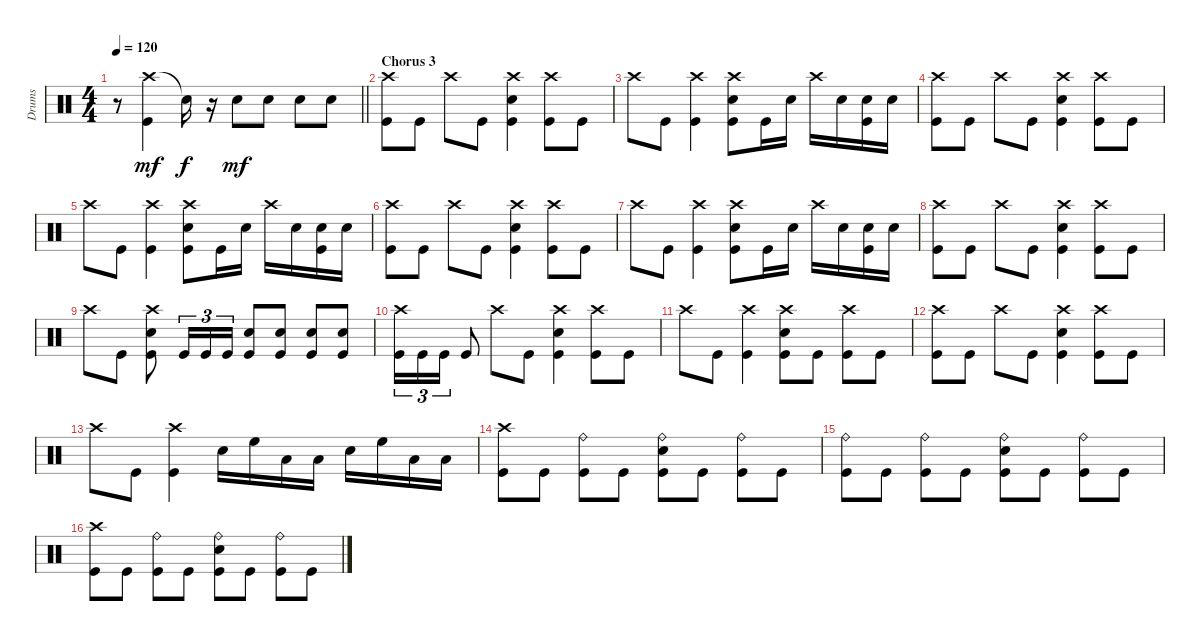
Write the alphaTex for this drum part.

\track ("Drums" "Drums") {instrument percussion}
\staff {score}
\articulation defaults
\ts (4 4)
\tempo 120
\clef neutral
\barLineRight lightlight
\ks c
r.8{dy mf} ("Crash high (hit)" "Kick (hit)").4 "Snare (hit)"{t}.16{dy f} r.16 "Snare (hit) 2".8{dy mf} "Snare (hit) 2".8 "Snare (hit) 2".8 "Snare (hit) 2".8 |
\section ("" "Chorus 3")
("Kick (hit)" "Crash high (hit)").8 "Kick (hit)".8 "Crash high (hit)".8 "Kick (hit)".8 ("Kick (hit)" "Snare (hit) 2" "Crash high (hit)").4 ("Kick (hit)" "Crash high (hit)").8 "Kick (hit)".8 |
"Crash high (hit)".8 "Kick (hit)".8 ("Kick (hit)" "Crash high (hit)").4 ("Kick (hit)" "Snare (hit) 2" "Crash high (hit)").8 "Kick (hit)".16 "Snare (hit) 2".16 "Crash high (hit)".16 "Snare (hit) 2".16 ("Snare (hit) 2" "Kick (hit)").16 "Snare (hit) 2".16 |
("Crash high (hit)" "Kick (hit)").8 "Kick (hit)".8 "Crash high (hit)".8 "Kick (hit)".8 ("Snare (hit) 2" "Crash high (hit)" "Kick (hit)").4 ("Crash high (hit)" "Kick (hit)").8 "Kick (hit)".8 |
"Crash high (hit)".8 "Kick (hit)".8 ("Kick (hit)" "Crash high (hit)").4 ("Kick (hit)" "Snare (hit) 2" "Crash high (hit)").8 "Kick (hit)".16 "Snare (hit) 2".16 "Crash high (hit)".16 "Snare (hit) 2".16 ("Kick (hit)" "Snare (hit) 2").16 "Snare (hit) 2".16 |
("Crash high (hit)" "Kick (hit)").8 "Kick (hit)".8 "Crash high (hit)".8 "Kick (hit)".8 ("Snare (hit) 2" "Crash high (hit)" "Kick (hit)").4 ("Crash high (hit)" "Kick (hit)").8 "Kick (hit)".8 |
"Crash high (hit)".8 "Kick (hit)".8 ("Crash high (hit)" "Kick (hit)").4 ("Snare (hit) 2" "Crash high (hit)" "Kick (hit)").8 "Kick (hit)".16 "Snare (hit) 2".16 "Crash high (hit)".16 "Snare (hit) 2".16 ("Kick (hit)" "Snare (hit) 2").16 "Snare (hit) 2".16 |
("Crash high (hit)" "Kick (hit)").8 "Kick (hit)".8 "Crash high (hit)".8 "Kick (hit)".8 ("Snare (hit) 2" "Crash high (hit)" "Kick (hit)").4 ("Crash high (hit)" "Kick (hit)").8 "Kick (hit)".8 |
"Crash high (hit)".8 "Kick (hit)".8 ("Snare (hit) 2" "Crash high (hit)" "Kick (hit)").8 "Kick (hit)".16{tu (3 2)} "Kick (hit)".16{tu (3 2)} "Kick (hit)".16{tu (3 2)} ("Kick (hit)" "Snare (hit) 2").8 ("Kick (hit)" "Snare (hit) 2").8 ("Kick (hit)" "Snare (hit) 2").8 ("Kick (hit)" "Snare (hit) 2").8 |
("Kick (hit)" "Crash high (hit)").16{tu (3 2)} "Kick (hit)".16{tu (3 2)} "Kick (hit)".16{tu (3 2)} "Kick (hit)".8 "Crash high (hit)".8 "Kick (hit)".8 ("Snare (hit) 2" "Crash high (hit)" "Kick (hit)").4 ("Crash high (hit)" "Kick (hit)").8 "Kick (hit)".8 |
"Crash high (hit)".8 "Kick (hit)".8 ("Kick (hit)" "Crash high (hit)").4 ("Kick (hit)" "Snare (hit) 2" "Crash high (hit)").8 "Kick (hit)".8 ("Crash high (hit)" "Kick (hit)").8 "Kick (hit)".8 |
("Crash high (hit)" "Kick (hit)").8 "Kick (hit)".8 "Crash high (hit)".8 "Kick (hit)".8 ("Snare (hit) 2" "Crash high (hit)" "Kick (hit)").4 ("Crash high (hit)" "Kick (hit)").8 "Kick (hit)".8 |
"Crash high (hit)".8 "Kick (hit)".8 ("Crash high (hit)" "Kick (hit)").4 "Snare (hit) 2".16 "High Floor Tom (hit)".16 "Low Tom (hit)".16 "Low Floor Tom (hit)".16 "Snare (hit) 2".16 "High Floor Tom (hit)".16 "Low Tom (hit)".16 "Low Floor Tom (hit)".16 |
("Kick (hit)" "Crash high (hit)").8 "Kick (hit)".8 ("Kick (hit)" "Ride (bell)").8 "Kick (hit)".8 ("Kick (hit)" "Snare (hit) 2" "Ride (bell)").8 "Kick (hit)".8 ("Kick (hit)" "Ride (bell)").8 "Kick (hit)".8 |
("Ride (bell)" "Kick (hit)").8 "Kick (hit)".8 ("Ride (bell)" "Kick (hit)").8 "Kick (hit)".8 ("Snare (hit) 2" "Ride (bell)" "Kick (hit)").8 "Kick (hit)".8 ("Ride (bell)" "Kick (hit)").8 "Kick (hit)".8 |
("Crash high (hit)" "Kick (hit)").8 "Kick (hit)".8 ("Ride (bell)" "Kick (hit)").8 "Kick (hit)".8 ("Snare (hit) 2" "Ride (bell)" "Kick (hit)").8 "Kick (hit)".8 ("Ride (bell)" "Kick (hit)").8 "Kick (hit)".8
